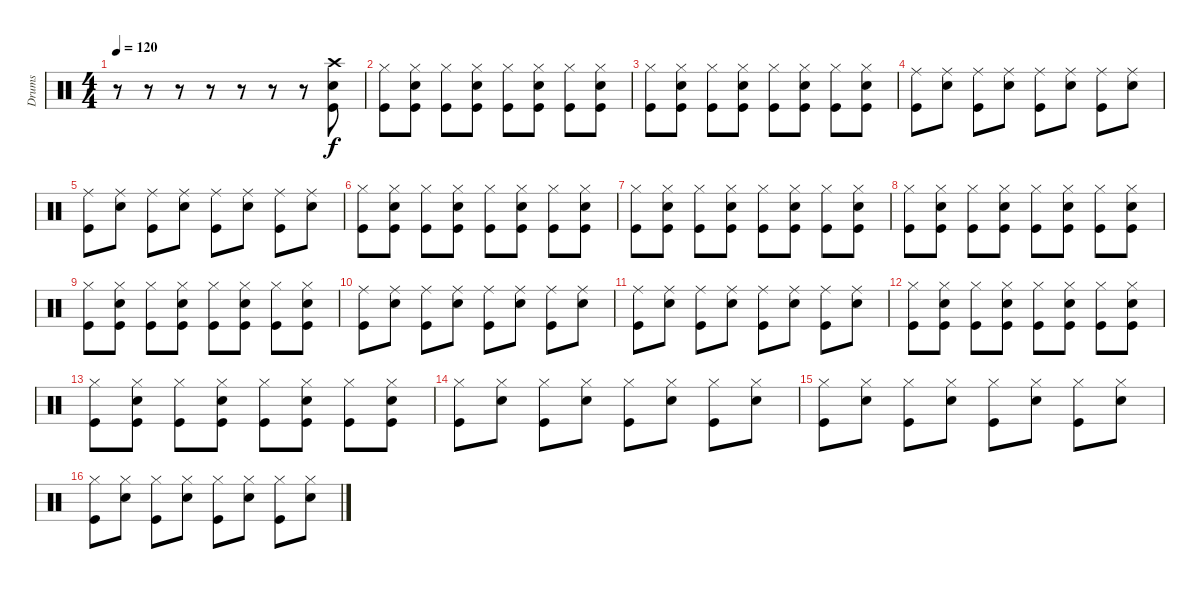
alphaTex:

\track ("Drums" "Drums") {instrument percussion}
\staff {score}
\articulation defaults
\ts (4 4)
\tempo 120
\clef neutral
\ks c
r.8{dy f} r.8 r.8 r.8 r.8 r.8 r.8 ("Crash high (hit)" "Snare (hit) 2" "Kick (hit)").8 |
("Hi-Hat (closed)" "Kick (hit)").8 ("Hi-Hat (closed)" "Snare (hit) 2" "Kick (hit)").8 ("Hi-Hat (closed)" "Kick (hit)").8 ("Hi-Hat (closed)" "Snare (hit) 2" "Kick (hit)").8 ("Hi-Hat (closed)" "Kick (hit)").8 ("Hi-Hat (closed)" "Snare (hit) 2" "Kick (hit)").8 ("Hi-Hat (closed)" "Kick (hit)").8 ("Hi-Hat (closed)" "Snare (hit) 2" "Kick (hit)").8 |
("Hi-Hat (closed)" "Kick (hit)").8 ("Hi-Hat (closed)" "Snare (hit) 2" "Kick (hit)").8 ("Hi-Hat (closed)" "Kick (hit)").8 ("Hi-Hat (closed)" "Snare (hit) 2" "Kick (hit)").8 ("Hi-Hat (closed)" "Kick (hit)").8 ("Hi-Hat (closed)" "Snare (hit) 2" "Kick (hit)").8 ("Hi-Hat (closed)" "Kick (hit)").8 ("Hi-Hat (closed)" "Snare (hit) 2" "Kick (hit)").8 |
("Ride (middle)" "Kick (hit)").8 ("Ride (middle)" "Snare (hit) 2").8 ("Ride (middle)" "Kick (hit)").8 ("Ride (middle)" "Snare (hit) 2").8 ("Ride (middle)" "Kick (hit)").8 ("Ride (middle)" "Snare (hit) 2").8 ("Ride (middle)" "Kick (hit)").8 ("Ride (middle)" "Snare (hit) 2").8 |
("Ride (middle)" "Kick (hit)").8 ("Ride (middle)" "Snare (hit) 2").8 ("Ride (middle)" "Kick (hit)").8 ("Ride (middle)" "Snare (hit) 2").8 ("Ride (middle)" "Kick (hit)").8 ("Ride (middle)" "Snare (hit) 2").8 ("Ride (middle)" "Kick (hit)").8 ("Ride (middle)" "Snare (hit) 2").8 |
("Hi-Hat (closed)" "Kick (hit)").8 ("Hi-Hat (closed)" "Snare (hit) 2" "Kick (hit)").8 ("Hi-Hat (closed)" "Kick (hit)").8 ("Hi-Hat (closed)" "Snare (hit) 2" "Kick (hit)").8 ("Hi-Hat (closed)" "Kick (hit)").8 ("Hi-Hat (closed)" "Snare (hit) 2" "Kick (hit)").8 ("Hi-Hat (closed)" "Kick (hit)").8 ("Hi-Hat (closed)" "Snare (hit) 2" "Kick (hit)").8 |
("Hi-Hat (closed)" "Kick (hit)").8 ("Hi-Hat (closed)" "Snare (hit) 2" "Kick (hit)").8 ("Hi-Hat (closed)" "Kick (hit)").8 ("Hi-Hat (closed)" "Snare (hit) 2" "Kick (hit)").8 ("Hi-Hat (closed)" "Kick (hit)").8 ("Hi-Hat (closed)" "Snare (hit) 2" "Kick (hit)").8 ("Hi-Hat (closed)" "Kick (hit)").8 ("Hi-Hat (closed)" "Snare (hit) 2" "Kick (hit)").8 |
("Hi-Hat (closed)" "Kick (hit)").8 ("Hi-Hat (closed)" "Snare (hit) 2" "Kick (hit)").8 ("Hi-Hat (closed)" "Kick (hit)").8 ("Hi-Hat (closed)" "Snare (hit) 2" "Kick (hit)").8 ("Hi-Hat (closed)" "Kick (hit)").8 ("Hi-Hat (closed)" "Snare (hit) 2" "Kick (hit)").8 ("Hi-Hat (closed)" "Kick (hit)").8 ("Hi-Hat (closed)" "Snare (hit) 2" "Kick (hit)").8 |
("Hi-Hat (closed)" "Kick (hit)").8 ("Hi-Hat (closed)" "Snare (hit) 2" "Kick (hit)").8 ("Hi-Hat (closed)" "Kick (hit)").8 ("Hi-Hat (closed)" "Snare (hit) 2" "Kick (hit)").8 ("Hi-Hat (closed)" "Kick (hit)").8 ("Hi-Hat (closed)" "Snare (hit) 2" "Kick (hit)").8 ("Hi-Hat (closed)" "Kick (hit)").8 ("Hi-Hat (closed)" "Snare (hit) 2" "Kick (hit)").8 |
("Ride (middle)" "Kick (hit)").8 ("Ride (middle)" "Snare (hit) 2").8 ("Ride (middle)" "Kick (hit)").8 ("Ride (middle)" "Snare (hit) 2").8 ("Ride (middle)" "Kick (hit)").8 ("Ride (middle)" "Snare (hit) 2").8 ("Ride (middle)" "Kick (hit)").8 ("Ride (middle)" "Snare (hit) 2").8 |
("Ride (middle)" "Kick (hit)").8 ("Ride (middle)" "Snare (hit) 2").8 ("Ride (middle)" "Kick (hit)").8 ("Ride (middle)" "Snare (hit) 2").8 ("Ride (middle)" "Kick (hit)").8 ("Ride (middle)" "Snare (hit) 2").8 ("Ride (middle)" "Kick (hit)").8 ("Ride (middle)" "Snare (hit) 2").8 |
("Hi-Hat (closed)" "Kick (hit)").8 ("Hi-Hat (closed)" "Snare (hit) 2" "Kick (hit)").8 ("Hi-Hat (closed)" "Kick (hit)").8 ("Hi-Hat (closed)" "Snare (hit) 2" "Kick (hit)").8 ("Hi-Hat (closed)" "Kick (hit)").8 ("Hi-Hat (closed)" "Snare (hit) 2" "Kick (hit)").8 ("Hi-Hat (closed)" "Kick (hit)").8 ("Hi-Hat (closed)" "Snare (hit) 2" "Kick (hit)").8 |
("Hi-Hat (closed)" "Kick (hit)").8 ("Hi-Hat (closed)" "Snare (hit) 2" "Kick (hit)").8 ("Hi-Hat (closed)" "Kick (hit)").8 ("Hi-Hat (closed)" "Snare (hit) 2" "Kick (hit)").8 ("Hi-Hat (closed)" "Kick (hit)").8 ("Hi-Hat (closed)" "Snare (hit) 2" "Kick (hit)").8 ("Hi-Hat (closed)" "Kick (hit)").8 ("Hi-Hat (closed)" "Snare (hit) 2" "Kick (hit)").8 |
("Hi-Hat (closed)" "Kick (hit)").8 ("Hi-Hat (closed)" "Snare (hit) 2").8 ("Hi-Hat (closed)" "Kick (hit)").8 ("Hi-Hat (closed)" "Snare (hit) 2").8 ("Hi-Hat (closed)" "Kick (hit)").8 ("Hi-Hat (closed)" "Snare (hit) 2").8 ("Hi-Hat (closed)" "Kick (hit)").8 ("Hi-Hat (closed)" "Snare (hit) 2").8 |
("Hi-Hat (closed)" "Kick (hit)").8 ("Hi-Hat (closed)" "Snare (hit) 2").8 ("Hi-Hat (closed)" "Kick (hit)").8 ("Hi-Hat (closed)" "Snare (hit) 2").8 ("Hi-Hat (closed)" "Kick (hit)").8 ("Hi-Hat (closed)" "Snare (hit) 2").8 ("Hi-Hat (closed)" "Kick (hit)").8 ("Hi-Hat (closed)" "Snare (hit) 2").8 |
("Hi-Hat (closed)" "Kick (hit)").8 ("Hi-Hat (closed)" "Snare (hit) 2").8 ("Hi-Hat (closed)" "Kick (hit)").8 ("Hi-Hat (closed)" "Snare (hit) 2").8 ("Hi-Hat (closed)" "Kick (hit)").8 ("Hi-Hat (closed)" "Snare (hit) 2").8 ("Hi-Hat (closed)" "Kick (hit)").8 ("Hi-Hat (closed)" "Snare (hit) 2").8
